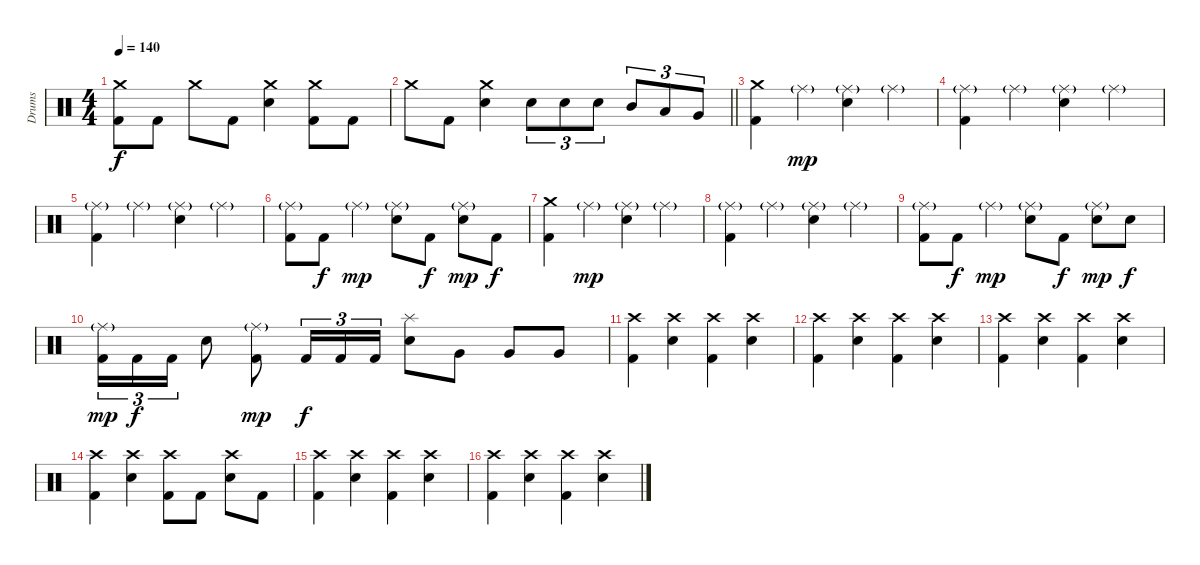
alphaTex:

\track ("Drums" "Drums") {instrument percussion}
\staff {score}
\articulation defaults
\ts (4 4)
\tempo 140
\clef neutral
\ks c
("Crash medium (hit)" "Kick (hit) 2").8{dy f} "Kick (hit) 2".8 "Crash medium (hit)".8 "Kick (hit) 2".8 ("Crash medium (hit)" "Electric Snare (hit)").4 ("Crash medium (hit)" "Kick (hit) 2").8 "Kick (hit) 2".8 |
\barLineRight lightlight "Crash medium (hit)".8 "Kick (hit) 2".8
("Crash medium (hit)" "Electric Snare (hit)").4 "Electric Snare (hit)".8{tu (3 2)} "Electric Snare (hit)".8{tu (3 2)} "Electric Snare (hit)".8{tu (3 2)} "Mid Tom (hit)".8{tu (3 2)} "Low Tom (hit)".8{tu (3 2)} "Very Low Tom (hit)".8{tu (3 2)} |
\section ("" "")
("Crash medium (hit)" "Kick (hit) 2").4 "Ride (middle)"{g}.4{dy mp} ("Ride (middle)"{g} "Electric Snare (hit)").4 "Ride (middle)"{g}.4 |
("Ride (middle)"{g} "Kick (hit) 2").4 "Ride (middle)"{g}.4 ("Ride (middle)"{g} "Electric Snare (hit)").4 "Ride (middle)"{g}.4 |
("Ride (middle)"{g} "Kick (hit) 2").4 "Ride (middle)"{g}.4 ("Ride (middle)"{g} "Electric Snare (hit)").4 "Ride (middle)"{g}.4 |
("Ride (middle)"{g} "Kick (hit) 2").8 "Kick (hit) 2".8{dy f} "Ride (middle)"{g}.4{dy mp} ("Ride (middle)"{g} "Electric Snare (hit)").8 "Kick (hit) 2".8{dy f} ("Ride (middle)"{g} "Electric Snare (hit)").8{dy mp} "Kick (hit) 2".8{dy f} |
("Crash medium (hit)" "Kick (hit) 2").4 "Ride (middle)"{g}.4{dy mp} ("Ride (middle)"{g} "Electric Snare (hit)").4 "Ride (middle)"{g}.4 |
("Ride (middle)"{g} "Kick (hit) 2").4 "Ride (middle)"{g}.4 ("Ride (middle)"{g} "Electric Snare (hit)").4 "Ride (middle)"{g}.4 |
("Ride (middle)"{g} "Kick (hit) 2").8 "Kick (hit) 2".8{dy f} "Ride (middle)"{g}.4{dy mp} ("Ride (middle)"{g} "Electric Snare (hit)").8 "Kick (hit) 2".8{dy f} ("Ride (middle)"{g} "Electric Snare (hit)").8{dy mp} "Electric Snare (hit)".8{dy f} |
("Ride (middle)"{g} "Kick (hit) 2").16{tu (3 2) dy mp} "Kick (hit) 2".16{tu (3 2) dy f} "Kick (hit) 2".16{tu (3 2)} "Electric Snare (hit)".8 ("Ride (middle)"{g} "Kick (hit) 2").8{dy mp} "Kick (hit) 2".16{tu (3 2) dy f} "Kick (hit) 2".16{tu (3 2)} "Kick (hit) 2".16{tu (3 2)} ("Splash (hit)" "Electric Snare (hit)").8 "Very Low Tom (hit)".8 "Very Low Tom (hit)".8 "Very Low Tom (hit)".8 |
("Crash high (hit)" "Kick (hit) 2").4 ("Crash high (hit)" "Electric Snare (hit)").4 ("Crash high (hit)" "Kick (hit) 2").4 ("Crash high (hit)" "Electric Snare (hit)").4 |
("Crash high (hit)" "Kick (hit) 2").4 ("Crash high (hit)" "Electric Snare (hit)").4 ("Crash high (hit)" "Kick (hit) 2").4 ("Crash high (hit)" "Electric Snare (hit)").4 |
("Crash high (hit)" "Kick (hit) 2").4 ("Crash high (hit)" "Electric Snare (hit)").4 ("Crash high (hit)" "Kick (hit) 2").4 ("Crash high (hit)" "Electric Snare (hit)").4 |
("Crash high (hit)" "Kick (hit) 2").4 ("Crash high (hit)" "Electric Snare (hit)").4 ("Crash high (hit)" "Kick (hit) 2").8 "Kick (hit) 2".8 ("Crash high (hit)" "Electric Snare (hit)").8 "Kick (hit) 2".8 |
("Crash high (hit)" "Kick (hit) 2").4 ("Crash high (hit)" "Electric Snare (hit)").4 ("Crash high (hit)" "Kick (hit) 2").4 ("Crash high (hit)" "Electric Snare (hit)").4 |
("Crash high (hit)" "Kick (hit) 2").4 ("Crash high (hit)" "Electric Snare (hit)").4 ("Crash high (hit)" "Kick (hit) 2").4 ("Crash high (hit)" "Electric Snare (hit)").4
